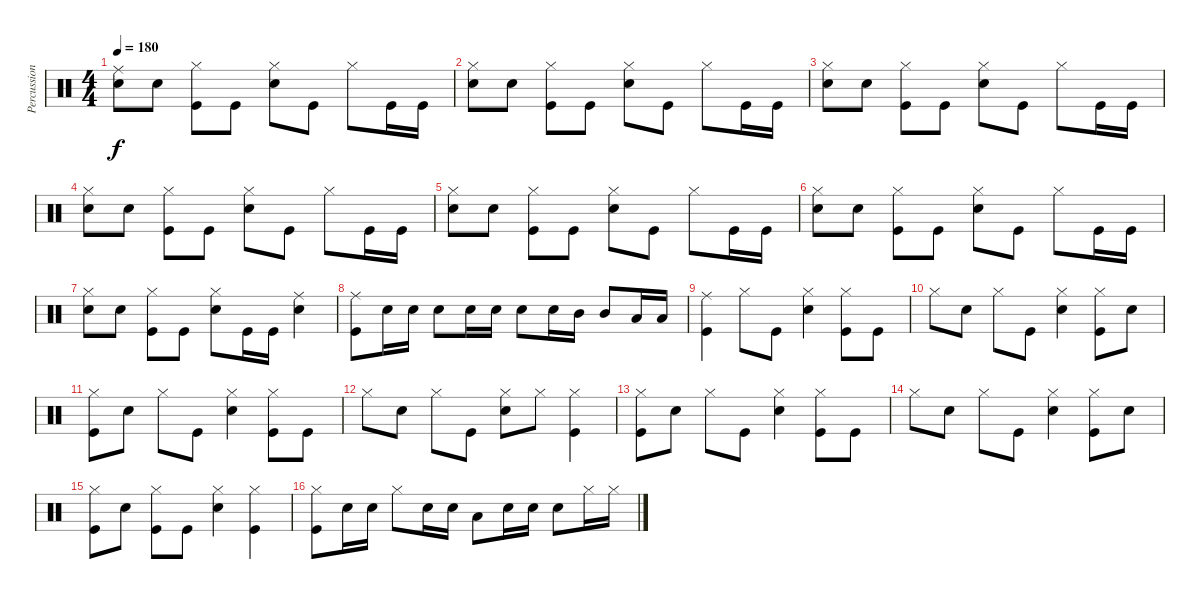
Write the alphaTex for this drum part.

\track ("Percussion" "Percussion") {instrument percussion}
\staff {score}
\articulation defaults
\ts (4 4)
\tempo 180
\clef neutral
\ks c
("Ride (middle)" "Snare (hit) 2").8{dy f} "Snare (hit) 2".8 ("Hi-Hat (closed)" "Kick (hit)").8 "Kick (hit)".8 ("Hi-Hat (closed)" "Snare (hit) 2").8 "Kick (hit)".8 "Hi-Hat (closed)".8 "Kick (hit)".16 "Kick (hit)".16 |
("Hi-Hat (closed)" "Snare (hit) 2").8 "Snare (hit) 2".8 ("Hi-Hat (closed)" "Kick (hit)").8 "Kick (hit)".8 ("Hi-Hat (closed)" "Snare (hit) 2").8 "Kick (hit)".8 "Hi-Hat (closed)".8 "Kick (hit)".16 "Kick (hit)".16 |
("Hi-Hat (closed)" "Snare (hit) 2").8 "Snare (hit) 2".8 ("Hi-Hat (closed)" "Kick (hit)").8 "Kick (hit)".8 ("Hi-Hat (closed)" "Snare (hit) 2").8 "Kick (hit)".8 "Hi-Hat (closed)".8 "Kick (hit)".16 "Kick (hit)".16 |
("Hi-Hat (closed)" "Snare (hit) 2").8 "Snare (hit) 2".8 ("Hi-Hat (closed)" "Kick (hit)").8 "Kick (hit)".8 ("Hi-Hat (closed)" "Snare (hit) 2").8 "Kick (hit)".8 "Hi-Hat (closed)".8 "Kick (hit)".16 "Kick (hit)".16 |
("Hi-Hat (closed)" "Snare (hit) 2").8 "Snare (hit) 2".8 ("Hi-Hat (closed)" "Kick (hit)").8 "Kick (hit)".8 ("Hi-Hat (closed)" "Snare (hit) 2").8 "Kick (hit)".8 "Hi-Hat (closed)".8 "Kick (hit)".16 "Kick (hit)".16 |
("Hi-Hat (closed)" "Snare (hit) 2").8 "Snare (hit) 2".8 ("Hi-Hat (closed)" "Kick (hit)").8 "Kick (hit)".8 ("Hi-Hat (closed)" "Snare (hit) 2").8 "Kick (hit)".8 "Hi-Hat (closed)".8 "Kick (hit)".16 "Kick (hit)".16 |
("Hi-Hat (closed)" "Snare (hit) 2").8 "Snare (hit) 2".8 ("Hi-Hat (closed)" "Kick (hit)").8 "Kick (hit)".8 ("Hi-Hat (closed)" "Snare (hit) 2").8 "Kick (hit)".16 "Kick (hit)".16 ("Ride (middle)" "Snare (hit) 2").4 |
("Ride (middle)" "Kick (hit)").8 "Snare (hit) 2".16 "Snare (hit) 2".16 "Snare (hit) 2".8 "Snare (hit) 2".16 "Snare (hit) 2".16 "Snare (hit) 2".8 "Snare (hit) 2".16 "Mid Tom (hit)".16 "Mid Tom (hit)".8 "Low Tom (hit)".16 "Low Tom (hit)".16 |
("Ride (middle)" "Kick (hit)").4 "Hi-Hat (closed)".8 "Kick (hit)".8 ("Hi-Hat (closed)" "Snare (hit) 2").4 ("Hi-Hat (closed)" "Kick (hit)").8 "Kick (hit)".8 |
"Hi-Hat (closed)".8 "Snare (hit) 2".8 "Hi-Hat (closed)".8 "Kick (hit)".8 ("Hi-Hat (closed)" "Snare (hit) 2").4 ("Hi-Hat (closed)" "Kick (hit)").8 "Snare (hit) 2".8 |
("Hi-Hat (closed)" "Kick (hit)").8 "Snare (hit) 2".8 "Hi-Hat (closed)".8 "Kick (hit)".8 ("Hi-Hat (closed)" "Snare (hit) 2").4 ("Hi-Hat (closed)" "Kick (hit)").8 "Kick (hit)".8 |
"Hi-Hat (closed)".8 "Snare (hit) 2".8 "Hi-Hat (closed)".8 "Kick (hit)".8 ("Hi-Hat (closed)" "Snare (hit) 2").8 "Hi-Hat (closed)".8 ("Hi-Hat (closed)" "Kick (hit)").4 |
("Hi-Hat (closed)" "Kick (hit)").8 "Snare (hit) 2".8 "Hi-Hat (closed)".8 "Kick (hit)".8 ("Hi-Hat (closed)" "Snare (hit) 2").4 ("Hi-Hat (closed)" "Kick (hit)").8 "Kick (hit)".8 |
"Hi-Hat (closed)".8 "Snare (hit) 2".8 "Hi-Hat (closed)".8 "Kick (hit)".8 ("Hi-Hat (closed)" "Snare (hit) 2").4 ("Hi-Hat (closed)" "Kick (hit)").8 "Snare (hit) 2".8 |
("Hi-Hat (closed)" "Kick (hit)").8 "Snare (hit) 2".8 ("Hi-Hat (closed)" "Kick (hit)").8 "Kick (hit)".8 ("Hi-Hat (closed)" "Snare (hit) 2").4 ("Hi-Hat (closed)" "Kick (hit)").4 |
("Hi-Hat (closed)" "Kick (hit)").8 "Snare (hit) 2".16 "Snare (hit) 2".16 "Hi-Hat (closed)".8 "Snare (hit) 2".16 "Snare (hit) 2".16 "Low Tom (hit)".8 "Snare (hit) 2".16 "Snare (hit) 2".16 "Snare (hit) 2".8 "Hi-Hat (closed)".16 "Hi-Hat (closed)".16
